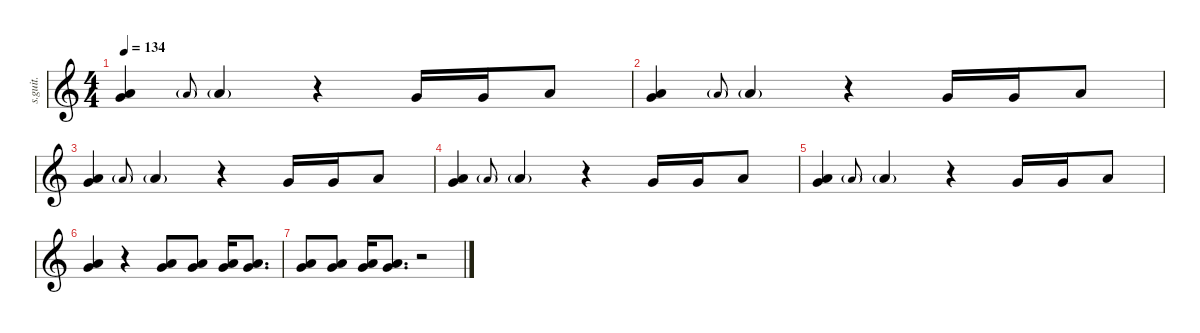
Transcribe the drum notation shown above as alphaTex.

\defaultSystemsLayout 4
\hideDynamics
\bracketExtendMode nobrackets
\track ("Chris Fehn" "s.guit.") {instrument percussion}
\staff {score}
\articulation defaults
\ts (4 4)
\tempo 134
\clef g2
\ks c
("Very Low Tom (hit)" "Low Floor Tom (hit)").4{dy f} "Low Floor Tom (hit)"{g}.8{gr onbeat} "Low Floor Tom (hit)"{g}.4 r.4 "Very Low Tom (hit)".16 "Very Low Tom (hit)".16 "Low Floor Tom (hit)".8 |
("Very Low Tom (hit)" "Low Floor Tom (hit)").4 "Low Floor Tom (hit)"{g}.8{gr onbeat} "Low Floor Tom (hit)"{g}.4 r.4 "Very Low Tom (hit)".16 "Very Low Tom (hit)".16 "Low Floor Tom (hit)".8 |
("Very Low Tom (hit)" "Low Floor Tom (hit)").4 "Low Floor Tom (hit)"{g}.8{gr onbeat} "Low Floor Tom (hit)"{g}.4 r.4 "Very Low Tom (hit)".16 "Very Low Tom (hit)".16 "Low Floor Tom (hit)".8 |
("Very Low Tom (hit)" "Low Floor Tom (hit)").4 "Low Floor Tom (hit)"{g}.8{gr onbeat} "Low Floor Tom (hit)"{g}.4 r.4 "Very Low Tom (hit)".16 "Very Low Tom (hit)".16 "Low Floor Tom (hit)".8 |
("Very Low Tom (hit)" "Low Floor Tom (hit)").4 "Low Floor Tom (hit)"{g}.8{gr onbeat} "Low Floor Tom (hit)"{g}.4 r.4 "Very Low Tom (hit)".16 "Very Low Tom (hit)".16 "Low Floor Tom (hit)".8 |
("Very Low Tom (hit)" "Low Floor Tom (hit)").4 r.4 ("Very Low Tom (hit)" "Low Floor Tom (hit)").8 ("Very Low Tom (hit)" "Low Floor Tom (hit)").8 ("Very Low Tom (hit)" "Low Floor Tom (hit)").16 ("Very Low Tom (hit)" "Low Floor Tom (hit)").8{d} |
("Very Low Tom (hit)" "Low Floor Tom (hit)").8 ("Very Low Tom (hit)" "Low Floor Tom (hit)").8 ("Very Low Tom (hit)" "Low Floor Tom (hit)").16 ("Very Low Tom (hit)" "Low Floor Tom (hit)").8{d} r.2
